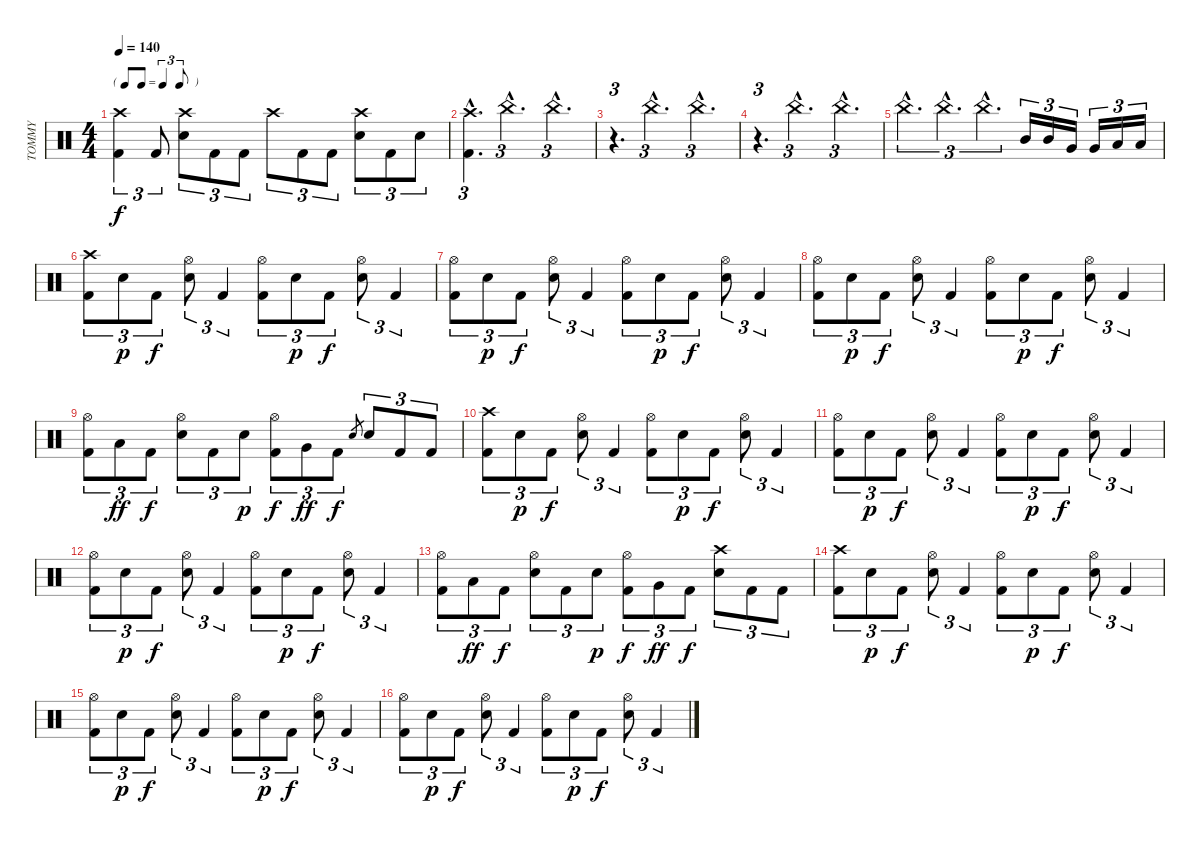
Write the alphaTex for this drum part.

\track ("TOMMY" "TOMMY") {instrument percussion}
\staff {score}
\articulation defaults
\ts (4 4)
\tf triplet8th
\tempo 140
\clef neutral
\ks c
("Kick (hit) 2" "Crash high (hit)").4{tu (3 2) dy f} "Kick (hit) 2".8{tu (3 2)} ("Snare (hit) 2" "Crash high (hit)").8{tu (3 2)} "Kick (hit) 2".8{tu (3 2)} "Kick (hit) 2".8{tu (3 2)} "Crash high (hit)".8{tu (3 2)} "Kick (hit) 2".8{tu (3 2)} "Kick (hit) 2".8{tu (3 2)} ("Snare (hit) 2" "Crash high (hit)").8{tu (3 2)} "Kick (hit) 2".8{tu (3 2)} "Snare (hit) 2".8{tu (3 2)} |
("Kick (hit) 2"{hac} "Crash high (hit)"{hac}).4{d tu (3 2)} "China (hit)"{hac}.2{d tu (3 2)} "China (hit)"{hac}.4{d tu (3 2)} |
r.4{d tu (3 2)} "China (hit)"{hac}.2{d tu (3 2)} "China (hit)"{hac}.4{d tu (3 2)} |
r.4{d tu (3 2)} "China (hit)"{hac}.2{d tu (3 2)} "China (hit)"{hac}.4{d tu (3 2)} |
"China (hit)"{hac}.4{d tu (3 2)} "China (hit)"{hac}.4{d tu (3 2)} "China (hit)"{hac}.4{d tu (3 2)} "Mid Tom (hit)".16{tu (3 2)} "Mid Tom (hit)".16{tu (3 2)} "Very Low Tom (hit)".16{tu (3 2)} "Very Low Tom (hit)".16{tu (3 2)} "Low Floor Tom (hit)".16{tu (3 2)} "Low Floor Tom (hit)".16{tu (3 2)} |
("Kick (hit) 2" "Crash high (hit)").8{tu (3 2)} "Snare (hit) 2".8{tu (3 2) dy p} "Kick (hit) 2".8{tu (3 2) dy f} ("Snare (hit) 2" "Hi-Hat (open)").8{tu (3 2)} "Kick (hit) 2".4{tu (3 2)} ("Kick (hit) 2" "Hi-Hat (open)").8{tu (3 2)} "Snare (hit) 2".8{tu (3 2) dy p} "Kick (hit) 2".8{tu (3 2) dy f} ("Snare (hit) 2" "Hi-Hat (open)").8{tu (3 2)} "Kick (hit) 2".4{tu (3 2)} |
("Kick (hit) 2" "Hi-Hat (open)").8{tu (3 2)} "Snare (hit) 2".8{tu (3 2) dy p} "Kick (hit) 2".8{tu (3 2) dy f} ("Snare (hit) 2" "Hi-Hat (open)").8{tu (3 2)} "Kick (hit) 2".4{tu (3 2)} ("Kick (hit) 2" "Hi-Hat (open)").8{tu (3 2)} "Snare (hit) 2".8{tu (3 2) dy p} "Kick (hit) 2".8{tu (3 2) dy f} ("Snare (hit) 2" "Hi-Hat (open)").8{tu (3 2)} "Kick (hit) 2".4{tu (3 2)} |
("Kick (hit) 2" "Hi-Hat (open)").8{tu (3 2)} "Snare (hit) 2".8{tu (3 2) dy p} "Kick (hit) 2".8{tu (3 2) dy f} ("Snare (hit) 2" "Hi-Hat (open)").8{tu (3 2)} "Kick (hit) 2".4{tu (3 2)} ("Kick (hit) 2" "Hi-Hat (open)").8{tu (3 2)} "Snare (hit) 2".8{tu (3 2) dy p} "Kick (hit) 2".8{tu (3 2) dy f} ("Snare (hit) 2" "Hi-Hat (open)").8{tu (3 2)} "Kick (hit) 2".4{tu (3 2)} |
("Kick (hit) 2" "Hi-Hat (open)").8{tu (3 2)} "Low Floor Tom (hit)".8{tu (3 2) dy ff} "Kick (hit) 2".8{tu (3 2) dy f} ("Snare (hit) 2" "Hi-Hat (open)").8{tu (3 2)} "Kick (hit) 2".8{tu (3 2)} "Snare (hit) 2".8{tu (3 2) dy p} ("Kick (hit) 2" "Hi-Hat (open)").8{tu (3 2) dy f} "Very Low Tom (hit)".8{tu (3 2) dy ff} "Kick (hit) 2".8{tu (3 2) dy f} "Snare (hit) 2".8{gr} "Snare (hit) 2".8{tu (3 2)} "Kick (hit) 2".8{tu (3 2)} "Kick (hit) 2".8{tu (3 2)} |
("Kick (hit) 2" "Crash high (hit)").8{tu (3 2)} "Snare (hit) 2".8{tu (3 2) dy p} "Kick (hit) 2".8{tu (3 2) dy f} ("Snare (hit) 2" "Hi-Hat (open)").8{tu (3 2)} "Kick (hit) 2".4{tu (3 2)} ("Kick (hit) 2" "Hi-Hat (open)").8{tu (3 2)} "Snare (hit) 2".8{tu (3 2) dy p} "Kick (hit) 2".8{tu (3 2) dy f} ("Snare (hit) 2" "Hi-Hat (open)").8{tu (3 2)} "Kick (hit) 2".4{tu (3 2)} |
("Kick (hit) 2" "Hi-Hat (open)").8{tu (3 2)} "Snare (hit) 2".8{tu (3 2) dy p} "Kick (hit) 2".8{tu (3 2) dy f} ("Snare (hit) 2" "Hi-Hat (open)").8{tu (3 2)} "Kick (hit) 2".4{tu (3 2)} ("Kick (hit) 2" "Hi-Hat (open)").8{tu (3 2)} "Snare (hit) 2".8{tu (3 2) dy p} "Kick (hit) 2".8{tu (3 2) dy f} ("Snare (hit) 2" "Hi-Hat (open)").8{tu (3 2)} "Kick (hit) 2".4{tu (3 2)} |
("Kick (hit) 2" "Hi-Hat (open)").8{tu (3 2)} "Snare (hit) 2".8{tu (3 2) dy p} "Kick (hit) 2".8{tu (3 2) dy f} ("Snare (hit) 2" "Hi-Hat (open)").8{tu (3 2)} "Kick (hit) 2".4{tu (3 2)} ("Kick (hit) 2" "Hi-Hat (open)").8{tu (3 2)} "Snare (hit) 2".8{tu (3 2) dy p} "Kick (hit) 2".8{tu (3 2) dy f} ("Snare (hit) 2" "Hi-Hat (open)").8{tu (3 2)} "Kick (hit) 2".4{tu (3 2)} |
("Kick (hit) 2" "Hi-Hat (open)").8{tu (3 2)} "Low Floor Tom (hit)".8{tu (3 2) dy ff} "Kick (hit) 2".8{tu (3 2) dy f} ("Snare (hit) 2" "Hi-Hat (open)").8{tu (3 2)} "Kick (hit) 2".8{tu (3 2)} "Snare (hit) 2".8{tu (3 2) dy p} ("Kick (hit) 2" "Hi-Hat (open)").8{tu (3 2) dy f} "Very Low Tom (hit)".8{tu (3 2) dy ff} "Kick (hit) 2".8{tu (3 2) dy f} ("Snare (hit) 2" "Crash high (hit)").8{tu (3 2)} "Kick (hit) 2".8{tu (3 2)} "Kick (hit) 2".8{tu (3 2)} |
("Kick (hit) 2" "Crash high (hit)").8{tu (3 2)} "Snare (hit) 2".8{tu (3 2) dy p} "Kick (hit) 2".8{tu (3 2) dy f} ("Snare (hit) 2" "Hi-Hat (open)").8{tu (3 2)} "Kick (hit) 2".4{tu (3 2)} ("Kick (hit) 2" "Hi-Hat (open)").8{tu (3 2)} "Snare (hit) 2".8{tu (3 2) dy p} "Kick (hit) 2".8{tu (3 2) dy f} ("Snare (hit) 2" "Hi-Hat (open)").8{tu (3 2)} "Kick (hit) 2".4{tu (3 2)} |
("Kick (hit) 2" "Hi-Hat (open)").8{tu (3 2)} "Snare (hit) 2".8{tu (3 2) dy p} "Kick (hit) 2".8{tu (3 2) dy f} ("Snare (hit) 2" "Hi-Hat (open)").8{tu (3 2)} "Kick (hit) 2".4{tu (3 2)} ("Kick (hit) 2" "Hi-Hat (open)").8{tu (3 2)} "Snare (hit) 2".8{tu (3 2) dy p} "Kick (hit) 2".8{tu (3 2) dy f} ("Snare (hit) 2" "Hi-Hat (open)").8{tu (3 2)} "Kick (hit) 2".4{tu (3 2)} |
("Kick (hit) 2" "Hi-Hat (open)").8{tu (3 2)} "Snare (hit) 2".8{tu (3 2) dy p} "Kick (hit) 2".8{tu (3 2) dy f} ("Snare (hit) 2" "Hi-Hat (open)").8{tu (3 2)} "Kick (hit) 2".4{tu (3 2)} ("Kick (hit) 2" "Hi-Hat (open)").8{tu (3 2)} "Snare (hit) 2".8{tu (3 2) dy p} "Kick (hit) 2".8{tu (3 2) dy f} ("Snare (hit) 2" "Hi-Hat (open)").8{tu (3 2)} "Kick (hit) 2".4{tu (3 2)}
